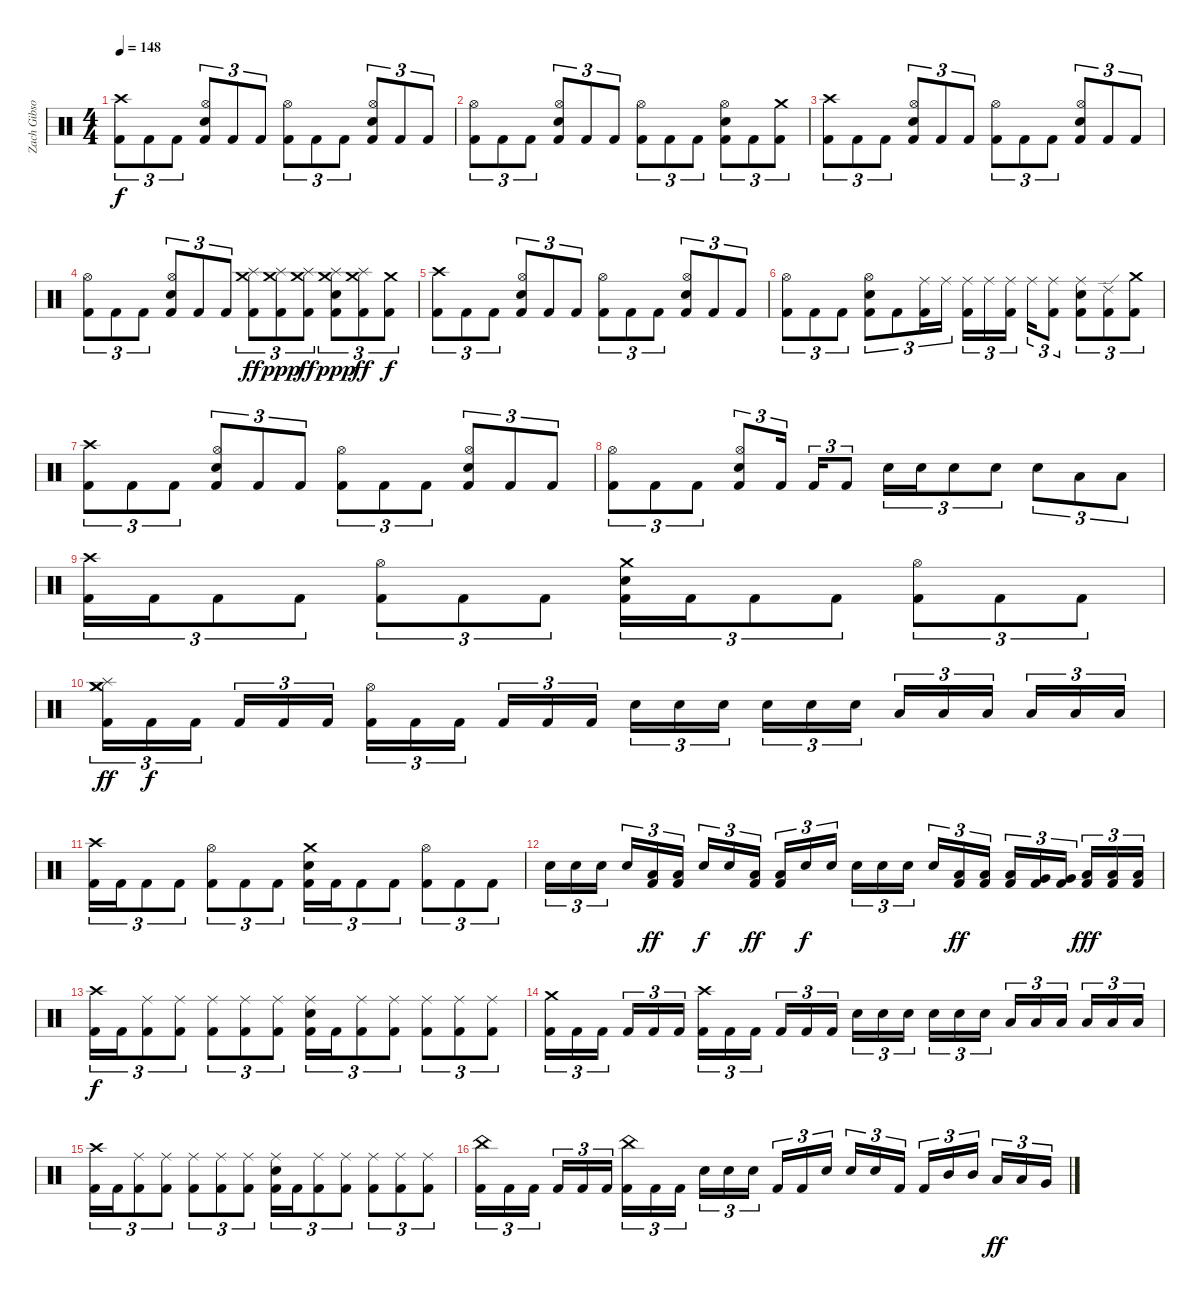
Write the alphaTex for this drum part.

\track ("Zach Gibson (Ex-Drums)" "Zach Gibso") {instrument percussion}
\staff {score}
\articulation defaults
\ts (4 4)
\tempo 148
\clef neutral
\ks c
("Crash high (hit)" "Kick (hit) 2").8{tu (3 2) dy f} "Kick (hit) 2".8{tu (3 2)} "Kick (hit) 2".8{tu (3 2)} ("Hi-Hat (open)" "Snare (hit) 2" "Kick (hit) 2").8{tu (3 2)} "Kick (hit) 2".8{tu (3 2)} "Kick (hit) 2".8{tu (3 2)} ("Hi-Hat (open)" "Kick (hit) 2").8{tu (3 2)} "Kick (hit) 2".8{tu (3 2)} "Kick (hit) 2".8{tu (3 2)} ("Hi-Hat (open)" "Snare (hit) 2" "Kick (hit) 2").8{tu (3 2)} "Kick (hit) 2".8{tu (3 2)} "Kick (hit) 2".8{tu (3 2)} |
("Hi-Hat (open)" "Kick (hit) 2").8{tu (3 2)} "Kick (hit) 2".8{tu (3 2)} "Kick (hit) 2".8{tu (3 2)} ("Hi-Hat (open)" "Snare (hit) 2" "Kick (hit) 2").8{tu (3 2)} "Kick (hit) 2".8{tu (3 2)} "Kick (hit) 2".8{tu (3 2)} ("Hi-Hat (open)" "Kick (hit) 2").8{tu (3 2)} "Kick (hit) 2".8{tu (3 2)} "Kick (hit) 2".8{tu (3 2)} ("Hi-Hat (open)" "Snare (hit) 2" "Kick (hit) 2").8{tu (3 2)} "Kick (hit) 2".8{tu (3 2)} ("Crash medium (hit)" "Kick (hit) 2").8{tu (3 2)} |
("Crash high (hit)" "Kick (hit) 2").8{tu (3 2)} "Kick (hit) 2".8{tu (3 2)} "Kick (hit) 2".8{tu (3 2)} ("Hi-Hat (open)" "Snare (hit) 2" "Kick (hit) 2").8{tu (3 2)} "Kick (hit) 2".8{tu (3 2)} "Kick (hit) 2".8{tu (3 2)} ("Hi-Hat (open)" "Kick (hit) 2").8{tu (3 2)} "Kick (hit) 2".8{tu (3 2)} "Kick (hit) 2".8{tu (3 2)} ("Hi-Hat (open)" "Snare (hit) 2" "Kick (hit) 2").8{tu (3 2)} "Kick (hit) 2".8{tu (3 2)} "Kick (hit) 2".8{tu (3 2)} |
("Hi-Hat (open)" "Kick (hit) 2").8{tu (3 2)} "Kick (hit) 2".8{tu (3 2)} "Kick (hit) 2".8{tu (3 2)} ("Hi-Hat (open)" "Snare (hit) 2" "Kick (hit) 2").8{tu (3 2)} "Kick (hit) 2".8{tu (3 2)} "Kick (hit) 2".8{tu (3 2)} ("Crash medium (hit)" "Splash (hit)" "Kick (hit) 2").8{tu (3 2) dy ff} ("Crash medium (hit)" "Splash (hit)" "Kick (hit) 2").8{tu (3 2) dy ppp} ("Crash medium (hit)" "Splash (hit)" "Kick (hit) 2").8{tu (3 2) dy ff} ("Crash medium (hit)" "Splash (hit)" "Snare (hit) 2" "Kick (hit) 2").8{tu (3 2) dy ppp} ("Crash medium (hit)" "Splash (hit)" "Kick (hit) 2").8{tu (3 2) dy ff} ("Crash medium (hit)" "Kick (hit) 2").8{tu (3 2) dy f} |
("Crash high (hit)" "Kick (hit) 2").8{tu (3 2)} "Kick (hit) 2".8{tu (3 2)} "Kick (hit) 2".8{tu (3 2)} ("Hi-Hat (open)" "Snare (hit) 2" "Kick (hit) 2").8{tu (3 2)} "Kick (hit) 2".8{tu (3 2)} "Kick (hit) 2".8{tu (3 2)} ("Hi-Hat (open)" "Kick (hit) 2").8{tu (3 2)} "Kick (hit) 2".8{tu (3 2)} "Kick (hit) 2".8{tu (3 2)} ("Hi-Hat (open)" "Snare (hit) 2" "Kick (hit) 2").8{tu (3 2)} "Kick (hit) 2".8{tu (3 2)} "Kick (hit) 2".8{tu (3 2)} |
("Hi-Hat (open)" "Kick (hit) 2").8{tu (3 2)} "Kick (hit) 2".8{tu (3 2)} "Kick (hit) 2".8{tu (3 2)} ("Hi-Hat (open)" "Snare (hit) 2" "Kick (hit) 2").8{tu (3 2)} "Kick (hit) 2".8{tu (3 2)} ("Ride (middle)" "Kick (hit) 2").16{tu (3 2)} "Ride (middle)".16{tu (3 2)} ("Ride (middle)" "Kick (hit) 2").16{tu (3 2)} "Ride (middle)".16{tu (3 2)} ("Ride (middle)" "Kick (hit) 2").16{tu (3 2)} "Ride (middle)".16{tu (3 2)} ("Ride (middle)" "Kick (hit) 2").8{tu (3 2)} ("Ride (middle)" "Snare (hit) 2" "Kick (hit) 2").8{tu (3 2)} ("Ride (edge) 2" "Kick (hit) 2").8{tu (3 2)} ("Crash medium (hit)" "Kick (hit) 2").8{tu (3 2)} |
("Crash high (hit)" "Kick (hit) 2").8{tu (3 2)} "Kick (hit) 2".8{tu (3 2)} "Kick (hit) 2".8{tu (3 2)} ("Hi-Hat (open)" "Snare (hit) 2" "Kick (hit) 2").8{tu (3 2)} "Kick (hit) 2".8{tu (3 2)} "Kick (hit) 2".8{tu (3 2)} ("Hi-Hat (open)" "Kick (hit) 2").8{tu (3 2)} "Kick (hit) 2".8{tu (3 2)} "Kick (hit) 2".8{tu (3 2)} ("Hi-Hat (open)" "Snare (hit) 2" "Kick (hit) 2").8{tu (3 2)} "Kick (hit) 2".8{tu (3 2)} "Kick (hit) 2".8{tu (3 2)} |
("Hi-Hat (open)" "Kick (hit) 2").8{tu (3 2)} "Kick (hit) 2".8{tu (3 2)} "Kick (hit) 2".8{tu (3 2)} ("Hi-Hat (open)" "Snare (hit) 2" "Kick (hit) 2").8{tu (3 2)} "Kick (hit) 2".16{tu (3 2)} "Kick (hit) 2".16{tu (3 2)} "Kick (hit) 2".8{tu (3 2)} "Snare (hit) 2".16{tu (3 2)} "Snare (hit) 2".16{tu (3 2)} "Snare (hit) 2".8{tu (3 2)} "Snare (hit) 2".8{tu (3 2)} "Snare (hit) 2".8{tu (3 2)} "Low Tom (hit)".8{tu (3 2)} "Low Tom (hit)".8{tu (3 2)} |
("Crash high (hit)" "Kick (hit) 2").16{tu (3 2)} "Kick (hit) 2".16{tu (3 2)} "Kick (hit) 2".8{tu (3 2)} "Kick (hit) 2".8{tu (3 2)} ("Hi-Hat (open)" "Kick (hit) 2").8{tu (3 2)} "Kick (hit) 2".8{tu (3 2)} "Kick (hit) 2".8{tu (3 2)} ("Crash medium (hit)" "Snare (hit) 2" "Kick (hit) 2").16{tu (3 2)} "Kick (hit) 2".16{tu (3 2)} "Kick (hit) 2".8{tu (3 2)} "Kick (hit) 2".8{tu (3 2)} ("Hi-Hat (open)" "Kick (hit) 2").8{tu (3 2)} "Kick (hit) 2".8{tu (3 2)} "Kick (hit) 2".8{tu (3 2)} |
("Crash medium (hit)" "Splash (hit)" "Crash medium (hit)" "Kick (hit) 2").16{tu (3 2) dy ff} "Kick (hit) 2".16{tu (3 2) dy f} "Kick (hit) 2".16{tu (3 2)} "Kick (hit) 2".16{tu (3 2)} "Kick (hit) 2".16{tu (3 2)} "Kick (hit) 2".16{tu (3 2)} ("Hi-Hat (open)" "Kick (hit) 2").16{tu (3 2)} "Kick (hit) 2".16{tu (3 2)} "Kick (hit) 2".16{tu (3 2)} "Kick (hit) 2".16{tu (3 2)} "Kick (hit) 2".16{tu (3 2)} "Kick (hit) 2".16{tu (3 2)} "Snare (hit) 2".16{tu (3 2)} "Snare (hit) 2".16{tu (3 2)} "Snare (hit) 2".16{tu (3 2)} "Snare (hit) 2".16{tu (3 2)} "Snare (hit) 2".16{tu (3 2)} "Snare (hit) 2".16{tu (3 2)} "Low Tom (hit)".16{tu (3 2)} "Low Tom (hit)".16{tu (3 2)} "Low Tom (hit)".16{tu (3 2)} "Low Tom (hit)".16{tu (3 2)} "Low Tom (hit)".16{tu (3 2)} "Low Tom (hit)".16{tu (3 2)} |
("Crash high (hit)" "Kick (hit) 2").16{tu (3 2)} "Kick (hit) 2".16{tu (3 2)} "Kick (hit) 2".8{tu (3 2)} "Kick (hit) 2".8{tu (3 2)} ("Hi-Hat (open)" "Kick (hit) 2").8{tu (3 2)} "Kick (hit) 2".8{tu (3 2)} "Kick (hit) 2".8{tu (3 2)} ("Crash medium (hit)" "Snare (hit) 2" "Kick (hit) 2").16{tu (3 2)} "Kick (hit) 2".16{tu (3 2)} "Kick (hit) 2".8{tu (3 2)} "Kick (hit) 2".8{tu (3 2)} ("Hi-Hat (open)" "Kick (hit) 2").8{tu (3 2)} "Kick (hit) 2".8{tu (3 2)} "Kick (hit) 2".8{tu (3 2)} |
"Snare (hit) 2".16{tu (3 2)} "Snare (hit) 2".16{tu (3 2)} "Snare (hit) 2".16{tu (3 2)} "Snare (hit) 2".16{tu (3 2)} ("Low Tom (hit)" "Kick (hit) 2").16{tu (3 2) dy ff} ("Low Tom (hit)" "Kick (hit) 2").16{tu (3 2)} "Snare (hit) 2".16{tu (3 2) dy f} "Snare (hit) 2".16{tu (3 2)} ("Low Tom (hit)" "Kick (hit) 2").16{tu (3 2) dy ff} ("Low Tom (hit)" "Kick (hit) 2").16{tu (3 2)} "Snare (hit) 2".16{tu (3 2) dy f} "Snare (hit) 2".16{tu (3 2)} "Snare (hit) 2".16{tu (3 2)} "Snare (hit) 2".16{tu (3 2)} "Snare (hit) 2".16{tu (3 2)} "Snare (hit) 2".16{tu (3 2)} ("Low Tom (hit)" "Kick (hit) 2").16{tu (3 2) dy ff} ("Low Tom (hit)" "Kick (hit) 2").16{tu (3 2)} ("Low Tom (hit)" "Kick (hit) 2").16{tu (3 2)} ("Very Low Tom (hit)" "Kick (hit) 2").16{tu (3 2)} ("Very Low Tom (hit)" "Kick (hit) 2").16{tu (3 2)} ("Low Floor Tom (hit)" "Kick (hit) 2").16{tu (3 2) dy fff} ("Low Floor Tom (hit)" "Kick (hit) 2").16{tu (3 2)} ("Low Floor Tom (hit)" "Kick (hit) 2").16{tu (3 2)} |
("Crash high (hit)" "Kick (hit) 2").16{tu (3 2) dy f} "Kick (hit) 2".16{tu (3 2)} ("Ride (middle)" "Kick (hit) 2").8{tu (3 2)} ("Ride (middle)" "Kick (hit) 2").8{tu (3 2)} ("Ride (middle)" "Kick (hit) 2").8{tu (3 2)} ("Ride (middle)" "Kick (hit) 2").8{tu (3 2)} ("Ride (middle)" "Kick (hit) 2").8{tu (3 2)} ("Ride (middle)" "Snare (hit) 2" "Kick (hit) 2").16{tu (3 2)} "Kick (hit) 2".16{tu (3 2)} ("Ride (middle)" "Kick (hit) 2").8{tu (3 2)} ("Ride (middle)" "Kick (hit) 2").8{tu (3 2)} ("Ride (middle)" "Kick (hit) 2").8{tu (3 2)} ("Ride (middle)" "Kick (hit) 2").8{tu (3 2)} ("Ride (middle)" "Kick (hit) 2").8{tu (3 2)} |
("Crash medium (hit)" "Kick (hit) 2").16{tu (3 2)} "Kick (hit) 2".16{tu (3 2)} "Kick (hit) 2".16{tu (3 2)} "Kick (hit) 2".16{tu (3 2)} "Kick (hit) 2".16{tu (3 2)} "Kick (hit) 2".16{tu (3 2)} ("Crash high (hit)" "Kick (hit) 2").16{tu (3 2)} "Kick (hit) 2".16{tu (3 2)} "Kick (hit) 2".16{tu (3 2)} "Kick (hit) 2".16{tu (3 2)} "Kick (hit) 2".16{tu (3 2)} "Kick (hit) 2".16{tu (3 2)} "Snare (hit) 2".16{tu (3 2)} "Snare (hit) 2".16{tu (3 2)} "Snare (hit) 2".16{tu (3 2)} "Snare (hit) 2".16{tu (3 2)} "Snare (hit) 2".16{tu (3 2)} "Snare (hit) 2".16{tu (3 2)} "Low Tom (hit)".16{tu (3 2)} "Low Tom (hit)".16{tu (3 2)} "Low Tom (hit)".16{tu (3 2)} "Low Tom (hit)".16{tu (3 2)} "Low Tom (hit)".16{tu (3 2)} "Low Tom (hit)".16{tu (3 2)} |
("Crash high (hit)" "Kick (hit) 2").16{tu (3 2)} "Kick (hit) 2".16{tu (3 2)} ("Ride (middle)" "Kick (hit) 2").8{tu (3 2)} ("Ride (middle)" "Kick (hit) 2").8{tu (3 2)} ("Ride (middle)" "Kick (hit) 2").8{tu (3 2)} ("Ride (middle)" "Kick (hit) 2").8{tu (3 2)} ("Ride (middle)" "Kick (hit) 2").8{tu (3 2)} ("Ride (middle)" "Snare (hit) 2" "Kick (hit) 2").16{tu (3 2)} "Kick (hit) 2".16{tu (3 2)} ("Ride (middle)" "Kick (hit) 2").8{tu (3 2)} ("Ride (middle)" "Kick (hit) 2").8{tu (3 2)} ("Ride (middle)" "Kick (hit) 2").8{tu (3 2)} ("Ride (middle)" "Kick (hit) 2").8{tu (3 2)} ("Ride (middle)" "Kick (hit) 2").8{tu (3 2)} |
("China (hit)" "Kick (hit) 2").16{tu (3 2)} "Kick (hit) 2".16{tu (3 2)} "Kick (hit) 2".16{tu (3 2)} "Kick (hit) 2".16{tu (3 2)} "Kick (hit) 2".16{tu (3 2)} "Kick (hit) 2".16{tu (3 2)} ("China (hit)" "Kick (hit) 2").16{tu (3 2)} "Kick (hit) 2".16{tu (3 2)} "Kick (hit) 2".16{tu (3 2)} "Snare (hit) 2".16{tu (3 2)} "Snare (hit) 2".16{tu (3 2)} "Snare (hit) 2".16{tu (3 2)} "Kick (hit) 2".16{tu (3 2)} "Kick (hit) 2".16{tu (3 2)} "Snare (hit) 2".16{tu (3 2)} "Snare (hit) 2".16{tu (3 2)} "Snare (hit) 2".16{tu (3 2)} "Kick (hit) 2".16{tu (3 2)} "Kick (hit) 2".16{tu (3 2)} "Mid Tom (hit)".16{tu (3 2)} "Mid Tom (hit)".16{tu (3 2)} "Low Tom (hit)".16{tu (3 2) dy ff} "Low Tom (hit)".16{tu (3 2)} "Very Low Tom (hit)".16{tu (3 2)}
